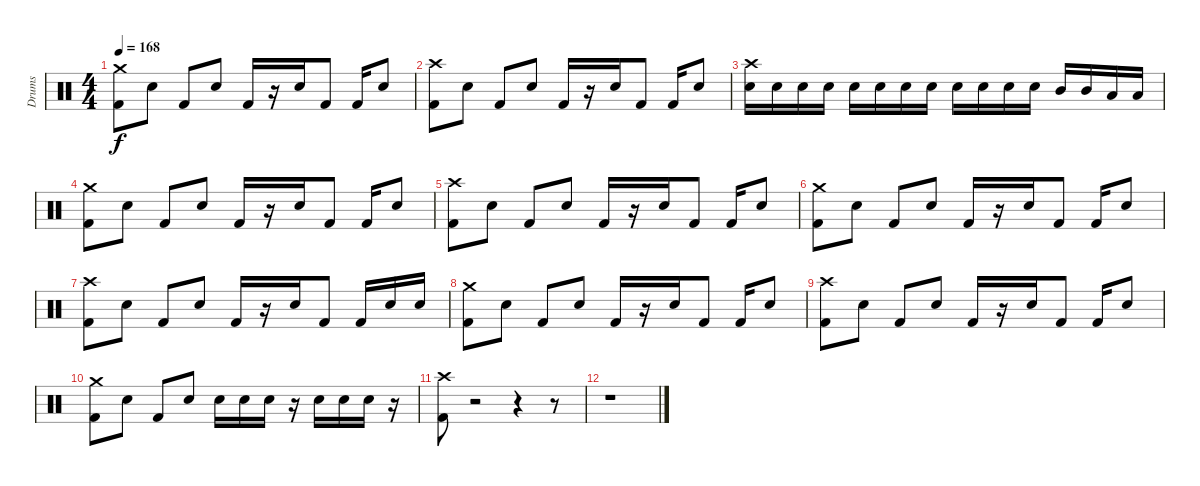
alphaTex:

\track ("Drums" "Drums") {instrument percussion}
\staff {score}
\articulation defaults
\ts (4 4)
\tempo 168
\clef neutral
\ks c
("Crash medium (hit)" "Kick (hit) 2").8{dy f} "Electric Snare (hit)".8 "Kick (hit) 2".8 "Electric Snare (hit)".8 "Kick (hit) 2".16 r.16 "Electric Snare (hit)".16 "Kick (hit) 2".8 "Kick (hit) 2".16 "Electric Snare (hit)".8 |
("Crash high (hit)" "Kick (hit) 2").8 "Electric Snare (hit)".8 "Kick (hit) 2".8 "Electric Snare (hit)".8 "Kick (hit) 2".16 r.16 "Electric Snare (hit)".16 "Kick (hit) 2".8 "Kick (hit) 2".16 "Electric Snare (hit)".8 |
("Crash high (hit)" "Electric Snare (hit)").16 "Electric Snare (hit)".16 "Electric Snare (hit)".16 "Electric Snare (hit)".16 "Electric Snare (hit)".16 "Electric Snare (hit)".16 "Electric Snare (hit)".16 "Electric Snare (hit)".16 "Electric Snare (hit)".16 "Electric Snare (hit)".16 "Electric Snare (hit)".16 "Electric Snare (hit)".16 "Mid Tom (hit)".16 "Mid Tom (hit)".16 "Low Tom (hit)".16 "Low Tom (hit)".16 |
("Crash medium (hit)" "Kick (hit) 2").8 "Electric Snare (hit)".8 "Kick (hit) 2".8 "Electric Snare (hit)".8 "Kick (hit) 2".16 r.16 "Electric Snare (hit)".16 "Kick (hit) 2".8 "Kick (hit) 2".16 "Electric Snare (hit)".8 |
("Crash high (hit)" "Kick (hit) 2").8 "Electric Snare (hit)".8 "Kick (hit) 2".8 "Electric Snare (hit)".8 "Kick (hit) 2".16 r.16 "Electric Snare (hit)".16 "Kick (hit) 2".8 "Kick (hit) 2".16 "Electric Snare (hit)".8 |
("Crash medium (hit)" "Kick (hit) 2").8 "Electric Snare (hit)".8 "Kick (hit) 2".8 "Electric Snare (hit)".8 "Kick (hit) 2".16 r.16 "Electric Snare (hit)".16 "Kick (hit) 2".8 "Kick (hit) 2".16 "Electric Snare (hit)".8 |
("Crash high (hit)" "Kick (hit) 2").8 "Electric Snare (hit)".8 "Kick (hit) 2".8 "Electric Snare (hit)".8 "Kick (hit) 2".16 r.16 "Electric Snare (hit)".16 "Kick (hit) 2".8 "Kick (hit) 2".16 "Electric Snare (hit)".16 "Electric Snare (hit)".16 |
("Crash medium (hit)" "Kick (hit) 2").8 "Electric Snare (hit)".8 "Kick (hit) 2".8 "Electric Snare (hit)".8 "Kick (hit) 2".16 r.16 "Electric Snare (hit)".16 "Kick (hit) 2".8 "Kick (hit) 2".16 "Electric Snare (hit)".8 |
("Crash high (hit)" "Kick (hit) 2").8 "Electric Snare (hit)".8 "Kick (hit) 2".8 "Electric Snare (hit)".8 "Kick (hit) 2".16 r.16 "Electric Snare (hit)".16 "Kick (hit) 2".8 "Kick (hit) 2".16 "Electric Snare (hit)".8 |
("Crash medium (hit)" "Kick (hit) 2").8 "Electric Snare (hit)".8 "Kick (hit) 2".8 "Electric Snare (hit)".8 "Electric Snare (hit)".16 "Electric Snare (hit)".16 "Electric Snare (hit)".16 r.16 "Electric Snare (hit)".16 "Electric Snare (hit)".16 "Electric Snare (hit)".16 r.16 |
("Crash high (hit)" "Kick (hit) 2").8 r.2 r.4 r.8 |
r.1
